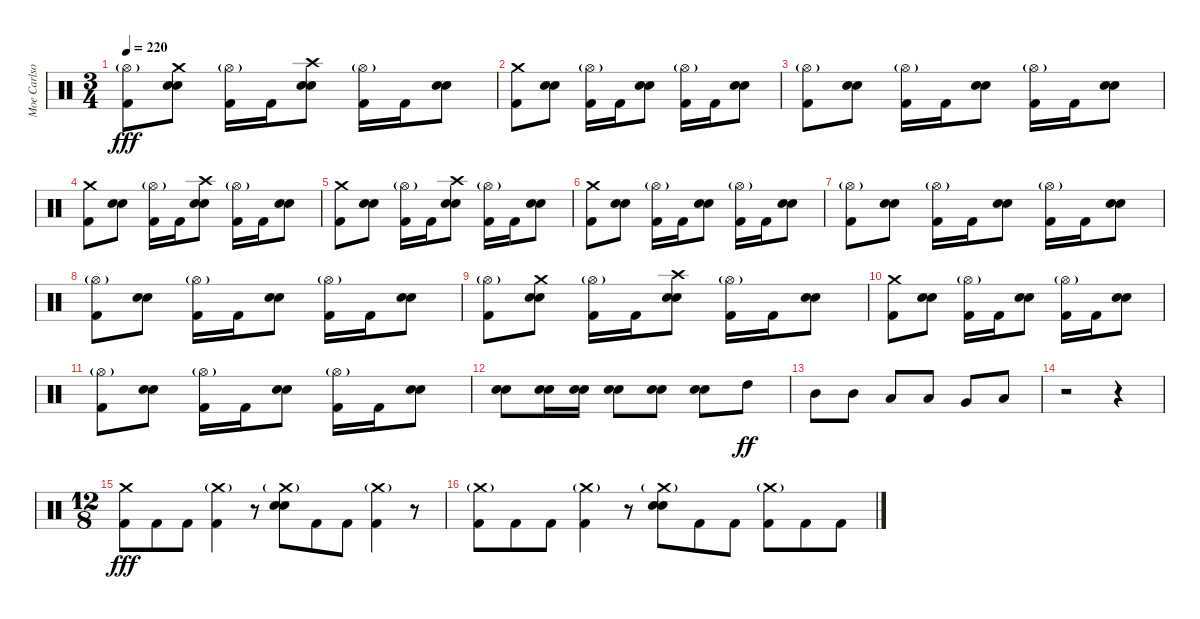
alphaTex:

\track ("Moe Carlson" "Moe Carlso") {instrument percussion}
\staff {score}
\articulation defaults
\ts (3 4)
\tempo 220
\clef neutral
\ks c
("Hi-Hat (open)"{g} "Kick (hit) 2").8{dy fff} ("Crash medium (hit)" "Snare (hit) 2" "Electric Snare (hit)").8 ("Hi-Hat (open)"{g} "Kick (hit) 2").16 "Kick (hit) 2".16 ("Crash high (hit)" "Snare (hit) 2" "Electric Snare (hit)").8 ("Hi-Hat (open)"{g} "Kick (hit) 2").16 "Kick (hit) 2".16 ("Snare (hit) 2" "Electric Snare (hit)").8 |
("Crash medium (hit)" "Kick (hit) 2").8 ("Snare (hit) 2" "Electric Snare (hit)").8 ("Hi-Hat (open)"{g} "Kick (hit) 2").16 "Kick (hit) 2".16 ("Snare (hit) 2" "Electric Snare (hit)").8 ("Hi-Hat (open)"{g} "Kick (hit) 2").16 "Kick (hit) 2".16 ("Snare (hit) 2" "Electric Snare (hit)").8 |
("Hi-Hat (open)"{g} "Kick (hit) 2").8 ("Snare (hit) 2" "Electric Snare (hit)").8 ("Hi-Hat (open)"{g} "Kick (hit) 2").16 "Kick (hit) 2".16 ("Snare (hit) 2" "Electric Snare (hit)").8 ("Hi-Hat (open)"{g} "Kick (hit) 2").16 "Kick (hit) 2".16 ("Snare (hit) 2" "Electric Snare (hit)").8 |
("Crash medium (hit)" "Kick (hit) 2").8 ("Snare (hit) 2" "Electric Snare (hit)").8 ("Hi-Hat (open)"{g} "Kick (hit) 2").16 "Kick (hit) 2".16 ("Crash high (hit)" "Snare (hit) 2" "Electric Snare (hit)").8 ("Hi-Hat (open)"{g} "Kick (hit) 2").16 "Kick (hit) 2".16 ("Snare (hit) 2" "Electric Snare (hit)").8 |
("Crash medium (hit)" "Kick (hit) 2").8 ("Snare (hit) 2" "Electric Snare (hit)").8 ("Hi-Hat (open)"{g} "Kick (hit) 2").16 "Kick (hit) 2".16 ("Crash high (hit)" "Snare (hit) 2" "Electric Snare (hit)").8 ("Hi-Hat (open)"{g} "Kick (hit) 2").16 "Kick (hit) 2".16 ("Snare (hit) 2" "Electric Snare (hit)").8 |
("Crash medium (hit)" "Kick (hit) 2").8 ("Snare (hit) 2" "Electric Snare (hit)").8 ("Hi-Hat (open)"{g} "Kick (hit) 2").16 "Kick (hit) 2".16 ("Snare (hit) 2" "Electric Snare (hit)").8 ("Hi-Hat (open)"{g} "Kick (hit) 2").16 "Kick (hit) 2".16 ("Snare (hit) 2" "Electric Snare (hit)").8 |
("Hi-Hat (open)"{g} "Kick (hit) 2").8 ("Snare (hit) 2" "Electric Snare (hit)").8 ("Hi-Hat (open)"{g} "Kick (hit) 2").16 "Kick (hit) 2".16 ("Snare (hit) 2" "Electric Snare (hit)").8 ("Hi-Hat (open)"{g} "Kick (hit) 2").16 "Kick (hit) 2".16 ("Snare (hit) 2" "Electric Snare (hit)").8 |
("Hi-Hat (open)"{g} "Kick (hit) 2").8 ("Snare (hit) 2" "Electric Snare (hit)").8 ("Hi-Hat (open)"{g} "Kick (hit) 2").16 "Kick (hit) 2".16 ("Snare (hit) 2" "Electric Snare (hit)").8 ("Hi-Hat (open)"{g} "Kick (hit) 2").16 "Kick (hit) 2".16 ("Snare (hit) 2" "Electric Snare (hit)").8 |
("Hi-Hat (open)"{g} "Kick (hit) 2").8 ("Crash medium (hit)" "Snare (hit) 2" "Electric Snare (hit)").8 ("Hi-Hat (open)"{g} "Kick (hit) 2").16 "Kick (hit) 2".16 ("Crash high (hit)" "Snare (hit) 2" "Electric Snare (hit)").8 ("Hi-Hat (open)"{g} "Kick (hit) 2").16 "Kick (hit) 2".16 ("Snare (hit) 2" "Electric Snare (hit)").8 |
("Crash medium (hit)" "Kick (hit) 2").8 ("Snare (hit) 2" "Electric Snare (hit)").8 ("Hi-Hat (open)"{g} "Kick (hit) 2").16 "Kick (hit) 2".16 ("Snare (hit) 2" "Electric Snare (hit)").8 ("Hi-Hat (open)"{g} "Kick (hit) 2").16 "Kick (hit) 2".16 ("Snare (hit) 2" "Electric Snare (hit)").8 |
("Hi-Hat (open)"{g} "Kick (hit) 2").8 ("Snare (hit) 2" "Electric Snare (hit)").8 ("Hi-Hat (open)"{g} "Kick (hit) 2").16 "Kick (hit) 2".16 ("Snare (hit) 2" "Electric Snare (hit)").8 ("Hi-Hat (open)"{g} "Kick (hit) 2").16 "Kick (hit) 2".16 ("Snare (hit) 2" "Electric Snare (hit)").8 |
("Snare (hit) 2" "Electric Snare (hit)").8 ("Snare (hit) 2" "Electric Snare (hit)").16 ("Snare (hit) 2" "Electric Snare (hit)").16 ("Snare (hit) 2" "Electric Snare (hit)").8 ("Snare (hit) 2" "Electric Snare (hit)").8 ("Snare (hit) 2" "Electric Snare (hit)").8 "High Tom (hit)".8{dy ff} |
"Mid Tom (hit)".8 "Mid Tom (hit)".8 "Low Tom (hit)".8 "Low Tom (hit)".8 "Very Low Tom (hit)".8 "Low Floor Tom (hit)".8 |
r.2 r.4 |
\ts (12 8)
("Crash medium (hit)" "Kick (hit) 2").8{dy fff} "Kick (hit) 2".8 "Kick (hit) 2".8 ("Crash medium (hit)"{g} "Kick (hit) 2").4 r.8 ("Crash medium (hit)"{g} "Snare (hit) 2" "Electric Snare (hit)").8 "Kick (hit) 2".8 "Kick (hit) 2".8 ("Crash medium (hit)"{g} "Kick (hit) 2").4 r.8 |
("Crash medium (hit)"{g} "Kick (hit) 2").8 "Kick (hit) 2".8 "Kick (hit) 2".8 ("Crash medium (hit)"{g} "Kick (hit) 2").4 r.8 ("Crash medium (hit)"{g} "Snare (hit) 2" "Electric Snare (hit)").8 "Kick (hit) 2".8 "Kick (hit) 2".8 ("Crash medium (hit)"{g} "Kick (hit) 2").8 "Kick (hit) 2".8 "Kick (hit) 2".8
